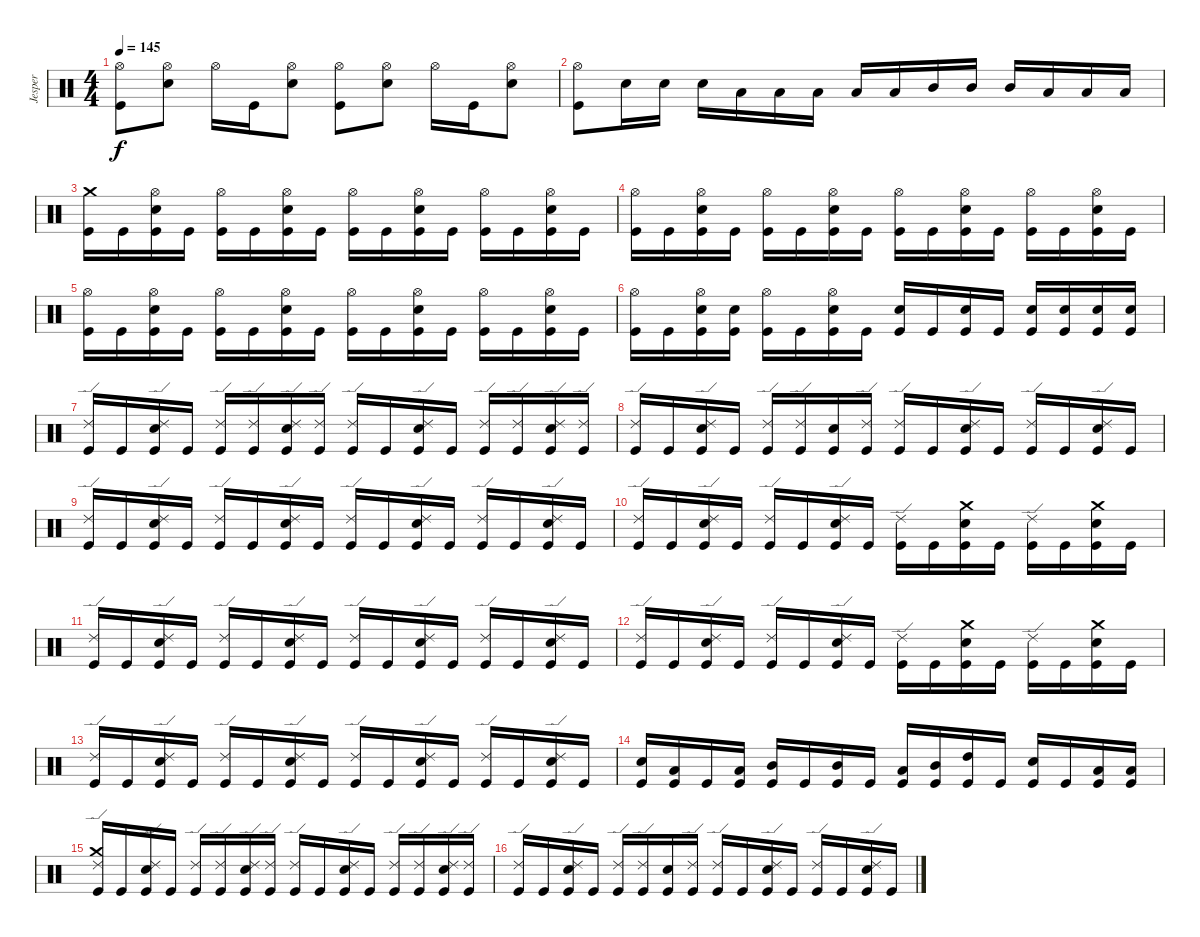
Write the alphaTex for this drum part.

\track ("Jesper" "Jesper") {instrument percussion}
\staff {score}
\articulation defaults
\ts (4 4)
\tempo 145
\clef neutral
\ks c
("Hi-Hat (open)" "Kick (hit)").8{dy f} ("Hi-Hat (open)" "Electric Snare (hit)").8 "Hi-Hat (open)".16 "Kick (hit)".16 ("Hi-Hat (open)" "Electric Snare (hit)").8 ("Hi-Hat (open)" "Kick (hit)").8 ("Hi-Hat (open)" "Electric Snare (hit)").8 "Hi-Hat (open)".16 "Kick (hit)".16 ("Hi-Hat (open)" "Electric Snare (hit)").8 |
("Hi-Hat (open)" "Kick (hit)").8 "Electric Snare (hit)".16 "Electric Snare (hit)".16 "Electric Snare (hit)".16 "Low Tom (hit)".16 "Low Tom (hit)".16 "Low Tom (hit)".16 "Low Tom (hit)".16 "Low Tom (hit)".16 "Mid Tom (hit)".16 "Mid Tom (hit)".16 "Mid Tom (hit)".16 "Low Floor Tom (hit)".16 "Low Floor Tom (hit)".16 "Low Floor Tom (hit)".16 |
("Crash medium (hit)" "Kick (hit)").16 "Kick (hit)".16 ("Hi-Hat (open)" "Electric Snare (hit)" "Kick (hit)").16 "Kick (hit)".16 ("Hi-Hat (open)" "Kick (hit)").16 "Kick (hit)".16 ("Hi-Hat (open)" "Electric Snare (hit)" "Kick (hit)").16 "Kick (hit)".16 ("Hi-Hat (open)" "Kick (hit)").16 "Kick (hit)".16 ("Hi-Hat (open)" "Electric Snare (hit)" "Kick (hit)").16 "Kick (hit)".16 ("Hi-Hat (open)" "Kick (hit)").16 "Kick (hit)".16 ("Hi-Hat (open)" "Electric Snare (hit)" "Kick (hit)").16 "Kick (hit)".16 |
("Hi-Hat (open)" "Kick (hit)").16 "Kick (hit)".16 ("Hi-Hat (open)" "Electric Snare (hit)" "Kick (hit)").16 "Kick (hit)".16 ("Hi-Hat (open)" "Kick (hit)").16 "Kick (hit)".16 ("Hi-Hat (open)" "Electric Snare (hit)" "Kick (hit)").16 "Kick (hit)".16 ("Hi-Hat (open)" "Kick (hit)").16 "Kick (hit)".16 ("Hi-Hat (open)" "Electric Snare (hit)" "Kick (hit)").16 "Kick (hit)".16 ("Hi-Hat (open)" "Kick (hit)").16 "Kick (hit)".16 ("Hi-Hat (open)" "Electric Snare (hit)" "Kick (hit)").16 "Kick (hit)".16 |
("Hi-Hat (open)" "Kick (hit)").16 "Kick (hit)".16 ("Hi-Hat (open)" "Electric Snare (hit)" "Kick (hit)").16 "Kick (hit)".16 ("Hi-Hat (open)" "Kick (hit)").16 "Kick (hit)".16 ("Hi-Hat (open)" "Electric Snare (hit)" "Kick (hit)").16 "Kick (hit)".16 ("Hi-Hat (open)" "Kick (hit)").16 "Kick (hit)".16 ("Hi-Hat (open)" "Electric Snare (hit)" "Kick (hit)").16 "Kick (hit)".16 ("Hi-Hat (open)" "Kick (hit)").16 "Kick (hit)".16 ("Hi-Hat (open)" "Electric Snare (hit)" "Kick (hit)").16 "Kick (hit)".16 |
("Hi-Hat (open)" "Kick (hit)").16 "Kick (hit)".16 ("Hi-Hat (open)" "Electric Snare (hit)" "Kick (hit)").16 ("Electric Snare (hit)" "Kick (hit)").16 ("Hi-Hat (open)" "Kick (hit)").16 "Kick (hit)".16 ("Hi-Hat (open)" "Electric Snare (hit)" "Kick (hit)").16 "Kick (hit)".16 ("Electric Snare (hit)" "Kick (hit)").16 "Kick (hit)".16 ("Electric Snare (hit)" "Kick (hit)").16 "Kick (hit)".16 ("Electric Snare (hit)" "Kick (hit)").16 ("Electric Snare (hit)" "Kick (hit)").16 ("Electric Snare (hit)" "Kick (hit)").16 ("Electric Snare (hit)" "Kick (hit)").16 |
("Ride (edge) 2" "Kick (hit)").16 "Kick (hit)".16 ("Ride (edge) 2" "Electric Snare (hit)" "Kick (hit)").16 "Kick (hit)".16 ("Ride (edge) 2" "Kick (hit)").16 ("Ride (edge) 2" "Kick (hit)").16 ("Ride (edge) 2" "Electric Snare (hit)" "Kick (hit)").16 ("Ride (edge) 2" "Kick (hit)").16 ("Ride (edge) 2" "Kick (hit)").16 "Kick (hit)".16 ("Ride (edge) 2" "Electric Snare (hit)" "Kick (hit)").16 "Kick (hit)".16 ("Ride (edge) 2" "Kick (hit)").16 ("Ride (edge) 2" "Kick (hit)").16 ("Ride (edge) 2" "Electric Snare (hit)" "Kick (hit)").16 ("Ride (edge) 2" "Kick (hit)").16 |
("Ride (edge) 2" "Kick (hit)").16 "Kick (hit)".16 ("Ride (edge) 2" "Electric Snare (hit)" "Kick (hit)").16 "Kick (hit)".16 ("Ride (edge) 2" "Kick (hit)").16 ("Ride (edge) 2" "Kick (hit)").16 ("Electric Snare (hit)" "Kick (hit)").16 ("Ride (edge) 2" "Kick (hit)").16 ("Ride (edge) 2" "Kick (hit)").16 "Kick (hit)".16 ("Ride (edge) 2" "Electric Snare (hit)" "Kick (hit)").16 "Kick (hit)".16 ("Ride (edge) 2" "Kick (hit)").16 "Kick (hit)".16 ("Ride (edge) 2" "Electric Snare (hit)" "Kick (hit)").16 "Kick (hit)".16 |
("Ride (edge) 2" "Kick (hit)").16 "Kick (hit)".16 ("Ride (edge) 2" "Electric Snare (hit)" "Kick (hit)").16 "Kick (hit)".16 ("Ride (edge) 2" "Kick (hit)").16 "Kick (hit)".16 ("Ride (edge) 2" "Electric Snare (hit)" "Kick (hit)").16 "Kick (hit)".16 ("Ride (edge) 2" "Kick (hit)").16 "Kick (hit)".16 ("Ride (edge) 2" "Electric Snare (hit)" "Kick (hit)").16 "Kick (hit)".16 ("Ride (edge) 2" "Kick (hit)").16 "Kick (hit)".16 ("Ride (edge) 2" "Electric Snare (hit)" "Kick (hit)").16 "Kick (hit)".16 |
("Ride (edge) 2" "Kick (hit)").16 "Kick (hit)".16 ("Ride (edge) 2" "Electric Snare (hit)" "Kick (hit)").16 "Kick (hit)".16 ("Ride (edge) 2" "Kick (hit)").16 "Kick (hit)".16 ("Ride (edge) 2" "Electric Snare (hit)" "Kick (hit)").16 "Kick (hit)".16 ("Ride (edge) 2" "Kick (hit)").16 "Kick (hit)".16 ("Crash medium (hit)" "Electric Snare (hit)" "Kick (hit)").16 "Kick (hit)".16 ("Ride (edge) 2" "Kick (hit)").16 "Kick (hit)".16 ("Crash medium (hit)" "Electric Snare (hit)" "Kick (hit)").16 "Kick (hit)".16 |
("Ride (edge) 2" "Kick (hit)").16 "Kick (hit)".16 ("Ride (edge) 2" "Electric Snare (hit)" "Kick (hit)").16 "Kick (hit)".16 ("Ride (edge) 2" "Kick (hit)").16 "Kick (hit)".16 ("Ride (edge) 2" "Electric Snare (hit)" "Kick (hit)").16 "Kick (hit)".16 ("Ride (edge) 2" "Kick (hit)").16 "Kick (hit)".16 ("Ride (edge) 2" "Electric Snare (hit)" "Kick (hit)").16 "Kick (hit)".16 ("Ride (edge) 2" "Kick (hit)").16 "Kick (hit)".16 ("Ride (edge) 2" "Electric Snare (hit)" "Kick (hit)").16 "Kick (hit)".16 |
("Ride (edge) 2" "Kick (hit)").16 "Kick (hit)".16 ("Ride (edge) 2" "Electric Snare (hit)" "Kick (hit)").16 "Kick (hit)".16 ("Ride (edge) 2" "Kick (hit)").16 "Kick (hit)".16 ("Ride (edge) 2" "Electric Snare (hit)" "Kick (hit)").16 "Kick (hit)".16 ("Ride (edge) 2" "Kick (hit)").16 "Kick (hit)".16 ("Crash medium (hit)" "Electric Snare (hit)" "Kick (hit)").16 "Kick (hit)".16 ("Ride (edge) 2" "Kick (hit)").16 "Kick (hit)".16 ("Crash medium (hit)" "Electric Snare (hit)" "Kick (hit)").16 "Kick (hit)".16 |
("Ride (edge) 2" "Kick (hit)").16 "Kick (hit)".16 ("Ride (edge) 2" "Electric Snare (hit)" "Kick (hit)").16 "Kick (hit)".16 ("Ride (edge) 2" "Kick (hit)").16 "Kick (hit)".16 ("Ride (edge) 2" "Electric Snare (hit)" "Kick (hit)").16 "Kick (hit)".16 ("Ride (edge) 2" "Kick (hit)").16 "Kick (hit)".16 ("Ride (edge) 2" "Electric Snare (hit)" "Kick (hit)").16 "Kick (hit)".16 ("Ride (edge) 2" "Kick (hit)").16 "Kick (hit)".16 ("Ride (edge) 2" "Electric Snare (hit)" "Kick (hit)").16 "Kick (hit)".16 |
("Kick (hit)" "Electric Snare (hit)").16 ("Kick (hit)" "Low Tom (hit)").16 "Kick (hit)".16 ("Kick (hit)" "Low Tom (hit)").16 ("Kick (hit)" "Mid Tom (hit)").16 "Kick (hit)".16 ("Kick (hit)" "Mid Tom (hit)").16 "Kick (hit)".16 ("Kick (hit)" "Low Tom (hit)").16 ("Kick (hit)" "Mid Tom (hit)").16 ("Kick (hit)" "High Tom (hit)").16 "Kick (hit)".16 ("Kick (hit)" "Electric Snare (hit)").16 "Kick (hit)".16 ("Kick (hit)" "Low Tom (hit)").16 ("Kick (hit)" "Low Tom (hit)").16 |
("Ride (edge) 2" "Crash medium (hit)" "Kick (hit)").16 "Kick (hit)".16 ("Ride (edge) 2" "Electric Snare (hit)" "Kick (hit)").16 "Kick (hit)".16 ("Ride (edge) 2" "Kick (hit)").16 ("Ride (edge) 2" "Kick (hit)").16 ("Ride (edge) 2" "Electric Snare (hit)" "Kick (hit)").16 ("Ride (edge) 2" "Kick (hit)").16 ("Ride (edge) 2" "Kick (hit)").16 "Kick (hit)".16 ("Ride (edge) 2" "Electric Snare (hit)" "Kick (hit)").16 "Kick (hit)".16 ("Ride (edge) 2" "Kick (hit)").16 ("Ride (edge) 2" "Kick (hit)").16 ("Ride (edge) 2" "Electric Snare (hit)" "Kick (hit)").16 ("Ride (edge) 2" "Kick (hit)").16 |
("Ride (edge) 2" "Kick (hit)").16 "Kick (hit)".16 ("Ride (edge) 2" "Electric Snare (hit)" "Kick (hit)").16 "Kick (hit)".16 ("Ride (edge) 2" "Kick (hit)").16 ("Ride (edge) 2" "Kick (hit)").16 ("Electric Snare (hit)" "Kick (hit)").16 ("Ride (edge) 2" "Kick (hit)").16 ("Ride (edge) 2" "Kick (hit)").16 "Kick (hit)".16 ("Ride (edge) 2" "Electric Snare (hit)" "Kick (hit)").16 "Kick (hit)".16 ("Ride (edge) 2" "Kick (hit)").16 "Kick (hit)".16 ("Ride (edge) 2" "Electric Snare (hit)" "Kick (hit)").16 "Kick (hit)".16
